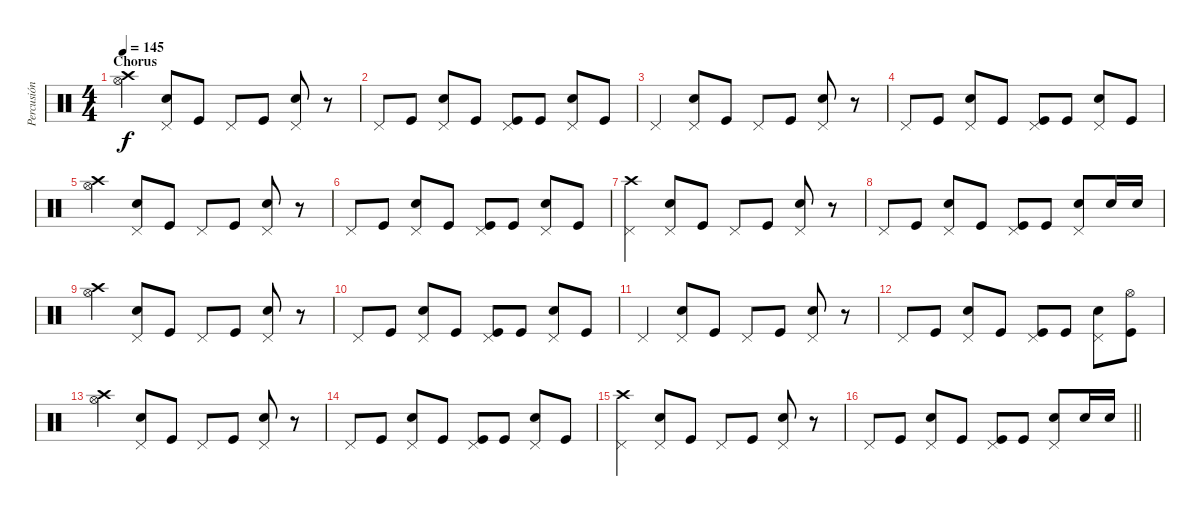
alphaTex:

\track ("Percusión" "Percusión") {instrument percussion}
\staff {score}
\articulation defaults
\ts (4 4)
\section ("" "Chorus")
\tempo 145
\clef neutral
\ks c
("Crash high (hit)" "Hi-Hat (open)").4{dy f} ("Pedal Hi-Hat (hit)" "Snare (hit) 2").8 "Kick (hit)".8 "Pedal Hi-Hat (hit)".8 "Kick (hit)".8 ("Pedal Hi-Hat (hit)" "Snare (hit) 2").8 r.8 |
"Pedal Hi-Hat (hit)".8 "Kick (hit)".8 ("Pedal Hi-Hat (hit)" "Snare (hit) 2").8 "Kick (hit)".8 ("Pedal Hi-Hat (hit)" "Kick (hit)").8 "Kick (hit)".8 ("Pedal Hi-Hat (hit)" "Snare (hit) 2").8 "Kick (hit)".8 |
"Pedal Hi-Hat (hit)".4 ("Pedal Hi-Hat (hit)" "Snare (hit) 2").8 "Kick (hit)".8 "Pedal Hi-Hat (hit)".8 "Kick (hit)".8 ("Pedal Hi-Hat (hit)" "Snare (hit) 2").8 r.8 |
"Pedal Hi-Hat (hit)".8 "Kick (hit)".8 ("Pedal Hi-Hat (hit)" "Snare (hit) 2").8 "Kick (hit)".8 ("Pedal Hi-Hat (hit)" "Kick (hit)").8 "Kick (hit)".8 ("Pedal Hi-Hat (hit)" "Snare (hit) 2").8 "Kick (hit)".8 |
("Crash high (hit)" "Hi-Hat (open)").4 ("Pedal Hi-Hat (hit)" "Snare (hit) 2").8 "Kick (hit)".8 "Pedal Hi-Hat (hit)".8 "Kick (hit)".8 ("Pedal Hi-Hat (hit)" "Snare (hit) 2").8 r.8 |
"Pedal Hi-Hat (hit)".8 "Kick (hit)".8 ("Pedal Hi-Hat (hit)" "Snare (hit) 2").8 "Kick (hit)".8 ("Pedal Hi-Hat (hit)" "Kick (hit)").8 "Kick (hit)".8 ("Pedal Hi-Hat (hit)" "Snare (hit) 2").8 "Kick (hit)".8 |
("Crash high (hit)" "Pedal Hi-Hat (hit)").4 ("Pedal Hi-Hat (hit)" "Snare (hit) 2").8 "Kick (hit)".8 "Pedal Hi-Hat (hit)".8 "Kick (hit)".8 ("Pedal Hi-Hat (hit)" "Snare (hit) 2").8 r.8 |
"Pedal Hi-Hat (hit)".8 "Kick (hit)".8 ("Pedal Hi-Hat (hit)" "Snare (hit) 2").8 "Kick (hit)".8 ("Pedal Hi-Hat (hit)" "Kick (hit)").8 "Kick (hit)".8 ("Pedal Hi-Hat (hit)" "Snare (hit) 2").8 "Snare (hit) 2".16 "Snare (hit) 2".16 |
("Crash high (hit)" "Hi-Hat (open)").4 ("Pedal Hi-Hat (hit)" "Snare (hit) 2").8 "Kick (hit)".8 "Pedal Hi-Hat (hit)".8 "Kick (hit)".8 ("Pedal Hi-Hat (hit)" "Snare (hit) 2").8 r.8 |
"Pedal Hi-Hat (hit)".8 "Kick (hit)".8 ("Pedal Hi-Hat (hit)" "Snare (hit) 2").8 "Kick (hit)".8 ("Pedal Hi-Hat (hit)" "Kick (hit)").8 "Kick (hit)".8 ("Pedal Hi-Hat (hit)" "Snare (hit) 2").8 "Kick (hit)".8 |
"Pedal Hi-Hat (hit)".4 ("Pedal Hi-Hat (hit)" "Snare (hit) 2").8 "Kick (hit)".8 "Pedal Hi-Hat (hit)".8 "Kick (hit)".8 ("Pedal Hi-Hat (hit)" "Snare (hit) 2").8 r.8 |
"Pedal Hi-Hat (hit)".8 "Kick (hit)".8 ("Pedal Hi-Hat (hit)" "Snare (hit) 2").8 "Kick (hit)".8 ("Pedal Hi-Hat (hit)" "Kick (hit)").8 "Kick (hit)".8 ("Pedal Hi-Hat (hit)" "Snare (hit) 2").8 ("Hi-Hat (open)" "Kick (hit)").8 |
("Crash high (hit)" "Hi-Hat (open)").4 ("Pedal Hi-Hat (hit)" "Snare (hit) 2").8 "Kick (hit)".8 "Pedal Hi-Hat (hit)".8 "Kick (hit)".8 ("Pedal Hi-Hat (hit)" "Snare (hit) 2").8 r.8 |
"Pedal Hi-Hat (hit)".8 "Kick (hit)".8 ("Pedal Hi-Hat (hit)" "Snare (hit) 2").8 "Kick (hit)".8 ("Pedal Hi-Hat (hit)" "Kick (hit)").8 "Kick (hit)".8 ("Pedal Hi-Hat (hit)" "Snare (hit) 2").8 "Kick (hit)".8 |
("Crash high (hit)" "Pedal Hi-Hat (hit)").4 ("Pedal Hi-Hat (hit)" "Snare (hit) 2").8 "Kick (hit)".8 "Pedal Hi-Hat (hit)".8 "Kick (hit)".8 ("Pedal Hi-Hat (hit)" "Snare (hit) 2").8 r.8 |
\barLineRight lightlight "Pedal Hi-Hat (hit)".8 "Kick (hit)".8
("Pedal Hi-Hat (hit)" "Snare (hit) 2").8 "Kick (hit)".8 ("Pedal Hi-Hat (hit)" "Kick (hit)").8 "Kick (hit)".8 ("Pedal Hi-Hat (hit)" "Snare (hit) 2").8 "Snare (hit) 2".16 "Snare (hit) 2".16
